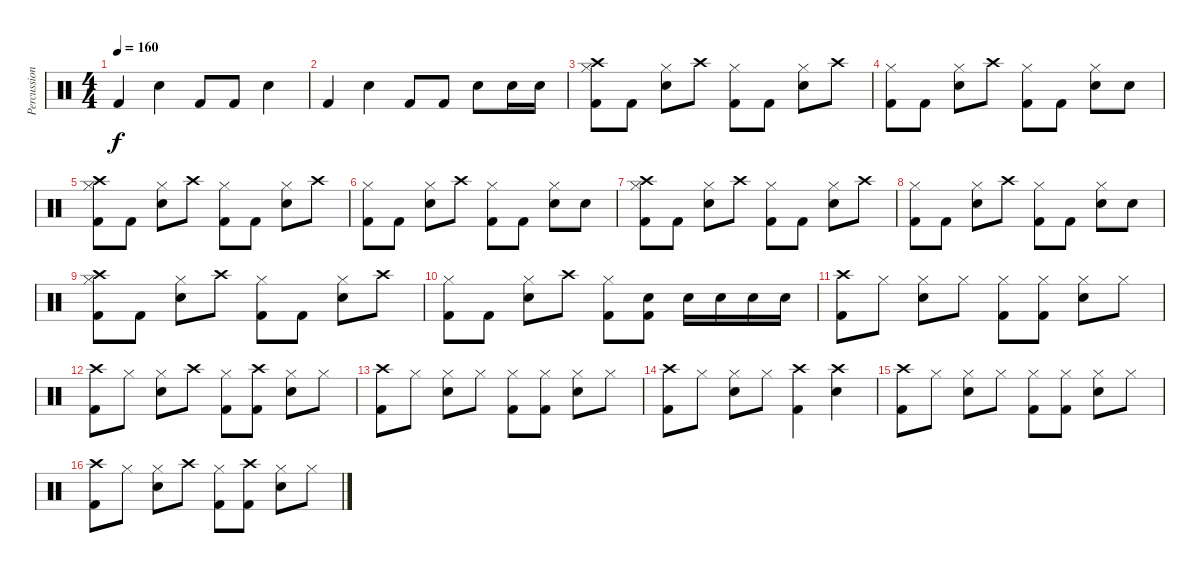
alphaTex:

\track ("Percussion" "Percussion") {instrument percussion}
\staff {score}
\articulation defaults
\ts (4 4)
\tempo 160
\clef neutral
\ks c "Kick (hit) 2".4{dy f} "Snare (hit) 2".4 "Kick (hit) 2".8 "Kick (hit) 2".8 "Snare (hit) 2".4
|
"Kick (hit) 2".4 "Snare (hit) 2".4 "Kick (hit) 2".8 "Kick (hit) 2".8 "Snare (hit) 2".8 "Snare (hit) 2".16 "Snare (hit) 2".16 |
("Crash high (hit)" "Hi-Hat (closed)" "Kick (hit) 2").8 "Kick (hit) 2".8 ("Hi-Hat (closed)" "Snare (hit) 2").8 "Crash high (hit)".8 ("Hi-Hat (closed)" "Kick (hit) 2").8 "Kick (hit) 2".8 ("Hi-Hat (closed)" "Snare (hit) 2").8 "Crash high (hit)".8 |
("Hi-Hat (closed)" "Kick (hit) 2").8 "Kick (hit) 2".8 ("Hi-Hat (closed)" "Snare (hit) 2").8 "Crash high (hit)".8 ("Hi-Hat (closed)" "Kick (hit) 2").8 "Kick (hit) 2".8 ("Hi-Hat (closed)" "Snare (hit) 2").8 "Snare (hit) 2".8 |
("Crash high (hit)" "Hi-Hat (closed)" "Kick (hit) 2").8 "Kick (hit) 2".8 ("Hi-Hat (closed)" "Snare (hit) 2").8 "Crash high (hit)".8 ("Hi-Hat (closed)" "Kick (hit) 2").8 "Kick (hit) 2".8 ("Hi-Hat (closed)" "Snare (hit) 2").8 "Crash high (hit)".8 |
("Hi-Hat (closed)" "Kick (hit) 2").8 "Kick (hit) 2".8 ("Hi-Hat (closed)" "Snare (hit) 2").8 "Crash high (hit)".8 ("Hi-Hat (closed)" "Kick (hit) 2").8 "Kick (hit) 2".8 ("Hi-Hat (closed)" "Snare (hit) 2").8 "Snare (hit) 2".8 |
("Crash high (hit)" "Hi-Hat (closed)" "Kick (hit) 2").8 "Kick (hit) 2".8 ("Hi-Hat (closed)" "Snare (hit) 2").8 "Crash high (hit)".8 ("Hi-Hat (closed)" "Kick (hit) 2").8 "Kick (hit) 2".8 ("Hi-Hat (closed)" "Snare (hit) 2").8 "Crash high (hit)".8 |
("Hi-Hat (closed)" "Kick (hit) 2").8 "Kick (hit) 2".8 ("Hi-Hat (closed)" "Snare (hit) 2").8 "Crash high (hit)".8 ("Hi-Hat (closed)" "Kick (hit) 2").8 "Kick (hit) 2".8 ("Hi-Hat (closed)" "Snare (hit) 2").8 "Snare (hit) 2".8 |
("Crash high (hit)" "Hi-Hat (closed)" "Kick (hit) 2").8 "Kick (hit) 2".8 ("Hi-Hat (closed)" "Snare (hit) 2").8 "Crash high (hit)".8 ("Hi-Hat (closed)" "Kick (hit) 2").8 "Kick (hit) 2".8 ("Hi-Hat (closed)" "Snare (hit) 2").8 "Crash high (hit)".8 |
("Hi-Hat (closed)" "Kick (hit) 2").8 "Kick (hit) 2".8 ("Hi-Hat (closed)" "Snare (hit) 2").8 "Crash high (hit)".8 ("Hi-Hat (closed)" "Kick (hit) 2").8 ("Snare (hit) 2" "Kick (hit) 2").8 "Snare (hit) 2".16 "Snare (hit) 2".16 "Snare (hit) 2".16 "Snare (hit) 2".16 |
("Crash high (hit)" "Kick (hit) 2").8 "Hi-Hat (closed)".8 ("Hi-Hat (closed)" "Snare (hit) 2").8 "Hi-Hat (closed)".8 ("Hi-Hat (closed)" "Kick (hit) 2").8 ("Hi-Hat (closed)" "Kick (hit) 2").8 ("Hi-Hat (closed)" "Snare (hit) 2").8 "Hi-Hat (closed)".8 |
("Crash high (hit)" "Kick (hit) 2").8 "Hi-Hat (closed)".8 ("Hi-Hat (closed)" "Snare (hit) 2").8 "Crash high (hit)".8 ("Hi-Hat (closed)" "Kick (hit) 2").8 ("Crash high (hit)" "Kick (hit) 2").8 ("Hi-Hat (closed)" "Snare (hit) 2").8 "Hi-Hat (closed)".8 |
("Crash high (hit)" "Kick (hit) 2").8 "Hi-Hat (closed)".8 ("Hi-Hat (closed)" "Snare (hit) 2").8 "Hi-Hat (closed)".8 ("Hi-Hat (closed)" "Kick (hit) 2").8 ("Hi-Hat (closed)" "Kick (hit) 2").8 ("Hi-Hat (closed)" "Snare (hit) 2").8 "Hi-Hat (closed)".8 |
("Crash high (hit)" "Kick (hit) 2").8 "Hi-Hat (closed)".8 ("Hi-Hat (closed)" "Snare (hit) 2").8 "Hi-Hat (closed)".8 ("Crash high (hit)" "Kick (hit) 2").4 ("Crash high (hit)" "Snare (hit) 2").4 |
("Crash high (hit)" "Kick (hit) 2").8 "Hi-Hat (closed)".8 ("Hi-Hat (closed)" "Snare (hit) 2").8 "Hi-Hat (closed)".8 ("Hi-Hat (closed)" "Kick (hit) 2").8 ("Hi-Hat (closed)" "Kick (hit) 2").8 ("Hi-Hat (closed)" "Snare (hit) 2").8 "Hi-Hat (closed)".8 |
("Crash high (hit)" "Kick (hit) 2").8 "Hi-Hat (closed)".8 ("Hi-Hat (closed)" "Snare (hit) 2").8 "Crash high (hit)".8 ("Hi-Hat (closed)" "Kick (hit) 2").8 ("Crash high (hit)" "Kick (hit) 2").8 ("Hi-Hat (closed)" "Snare (hit) 2").8 "Hi-Hat (closed)".8
